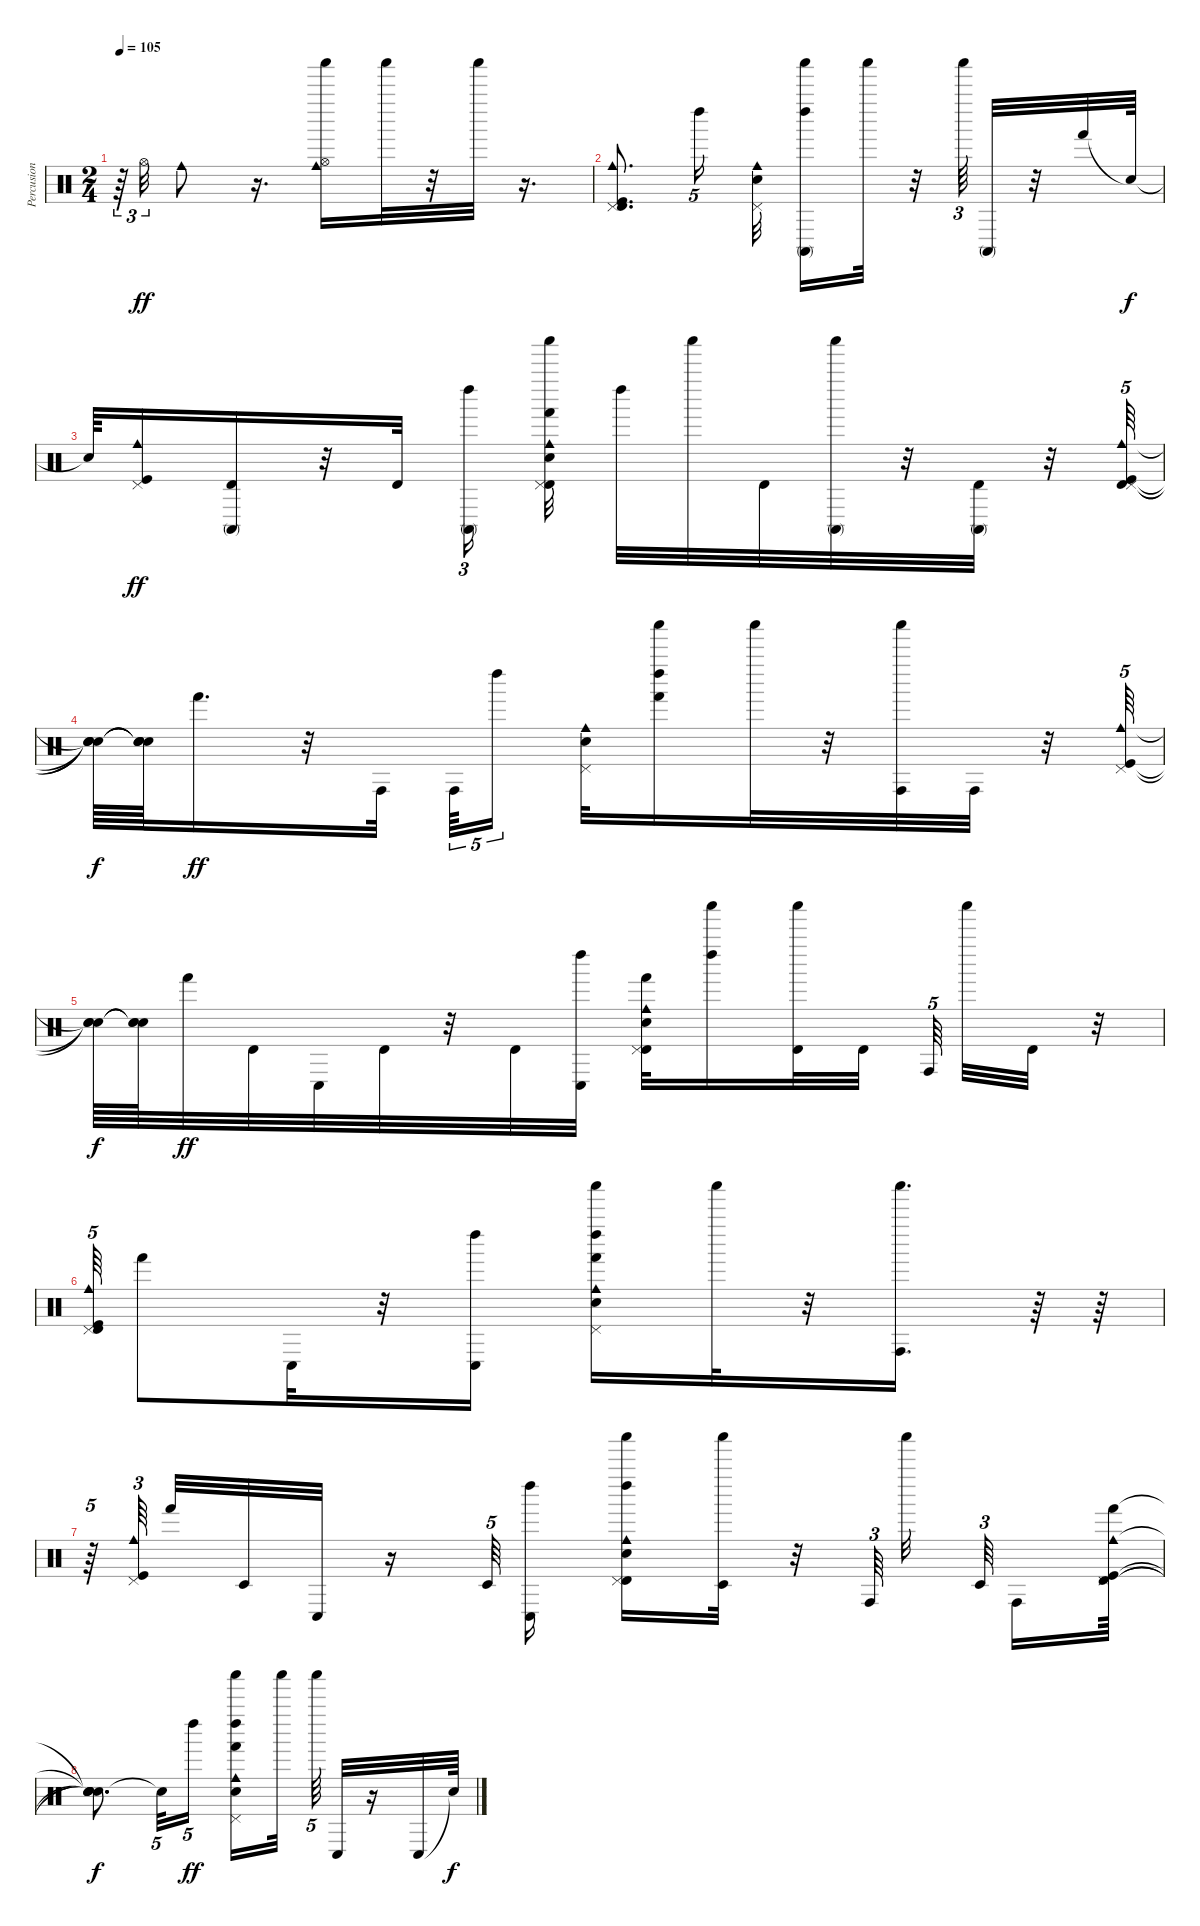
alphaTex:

\track ("Percusion" "Percusion") {instrument percussion}
\staff {score}
\articulation defaults
\ts (2 4)
\tempo 105
\clef neutral
\ks c
r.64{tu (3 2) dy ff} "Hi-Hat (open)".32{tu (3 2)} "Cowbell medium (hit)".8 r.16{d} ("Shaker (hit)" "Hi-Hat (open)" "Cowbell medium (hit)").16 "Shaker (hit)".32 r.32 "Shaker (hit)".32 r.16{d} |
("Cowbell medium (hit)" "Kick (hit)" "Pedal Hi-Hat (hit)" "Timbale high (hit)").8{d} "Left Maraca (hit)".16{tu (5 4)} ("Electric Snare (hit)" "Cowbell medium (hit)" "Pedal Hi-Hat (hit)").32 ("Shaker (hit)" "Left Maraca (hit)" "Conga high (mute)").16 "Shaker (hit)".32 r.32 "Shaker (hit)".64{tu (3 2)} "Conga high (mute)".32 r.32 "Hand (hit)".32 "Snare (hit)"{t}.64{dy f} |
"Snare (hit)"{t}.64 ("Pedal Hi-Hat (hit)" "Cowbell medium (hit)" "Kick (hit)").16{dy ff} ("Timbale high (hit)" "Conga high (mute)").16 r.32 "Timbale high (hit)".32{beam splitsecondary} ("Conga high (mute)" "Left Maraca (hit)").16{tu (3 2)} ("Shaker (hit)" "Timbale high (hit)" "Hand (hit)" "Cowbell medium (hit)" "Electric Snare (hit)" "Pedal Hi-Hat (hit)").32 "Left Maraca (hit)".32 "Shaker (hit)".32 "Timbale high (hit)".32 ("Shaker (hit)" "Conga high (mute)").32 r.32 ("Timbale high (hit)" "Conga high (mute)").32 r.32 ("Timbale high (hit)" "Kick (hit)" "Cowbell medium (hit)" "Pedal Hi-Hat (hit)").64{tu (5 4)} |
("Snare (hit)"{t} "Snare (hit)"{t} "Snare (hit)"{t} "Snare (hit)"{t}).64{dy f} ("Snare (hit)"{t} "Snare (hit)"{t} "Snare (hit)"{t} "Snare (hit)"{t}).64 "Hand (hit)".16{d dy ff} r.32 "Conga high (hit)".32{beam splitsecondary} "Conga high (hit)".64{tu (5 4)} "Left Maraca (hit)".16{tu (5 4)} ("Pedal Hi-Hat (hit)" "Electric Snare (hit)" "Cowbell medium (hit)").32 ("Left Maraca (hit)" "Shaker (hit)" "Hand (hit)").16 "Shaker (hit)".32 r.32 ("Shaker (hit)" "Conga high (hit)").32 "Conga high (hit)".32 r.32 ("Pedal Hi-Hat (hit)" "Kick (hit)" "Cowbell medium (hit)").64{tu (5 4)} |
("Snare (hit)"{t} "Snare (hit)"{t} "Snare (hit)"{t}).64{dy f} ("Snare (hit)"{t} "Snare (hit)"{t} "Snare (hit)"{t}).64 "Hand (hit)".32{dy ff} "Timbale high (hit)".32 "Conga low (hit)".32 "Timbale high (hit)".32 r.32 "Timbale high (hit)".32 ("Conga low (hit)" "Left Maraca (hit)").32 ("Timbale high (hit)" "Cowbell medium (hit)" "Electric Snare (hit)" "Hand (hit)" "Pedal Hi-Hat (hit)").32 ("Left Maraca (hit)" "Shaker (hit)").16 ("Timbale high (hit)" "Shaker (hit)").32 "Timbale high (hit)".32{beam splitsecondary} "Conga high (hit)".64{tu (5 4) beam splitsecondary} "Shaker (hit)".32 "Timbale high (hit)".32 r.32 |
("Cowbell medium (hit)" "Kick (hit)" "Pedal Hi-Hat (hit)" "Timbale high (hit)").64{tu (5 4)} "Hand (hit)".8 "Conga low (hit)".32 r.32 ("Left Maraca (hit)" "Conga low (hit)").16 ("Pedal Hi-Hat (hit)" "Electric Snare (hit)" "Cowbell medium (hit)" "Left Maraca (hit)" "Shaker (hit)" "Hand (hit)").16 "Shaker (hit)".32 r.32 ("Conga high (hit)" "Shaker (hit)").16{d} r.64 r.64 |
r.64{tu (5 4)} ("Pedal Hi-Hat (hit)" "Cowbell medium (hit)" "Kick (hit)").64{tu (3 2) beam splitsecondary} "Hand (hit)".32 "Timbale low (hit)".32 "Conga low (hit)".32 r.16 "Timbale low (hit)".64{tu (5 4)} ("Conga low (hit)" "Left Maraca (hit)").16 ("Timbale high (hit)" "Cowbell medium (hit)" "Electric Snare (hit)" "Pedal Hi-Hat (hit)" "Shaker (hit)" "Left Maraca (hit)").16 ("Shaker (hit)" "Timbale low (hit)").32 r.32 "Conga high (hit)".64{tu (3 2) beam splitsecondary} "Shaker (hit)".32{beam splitsecondary} "Timbale low (hit)".64{tu (3 2) beam splitsecondary} "Conga high (hit)".16 ("Timbale high (hit)" "Pedal Hi-Hat (hit)" "Cowbell medium (hit)" "Kick (hit)" "Hand (hit)").64 |
("Snare (hit)"{t} "Snare (hit)"{t} "Snare (hit)"{t} "Snare (hit)"{t} "Snare (hit)"{t}).8{d dy f} "Snare (hit)"{t}.32{tu (5 4)} "Left Maraca (hit)".16{tu (5 4) dy ff} ("Pedal Hi-Hat (hit)" "Cowbell medium (hit)" "Electric Snare (hit)" "Hand (hit)" "Left Maraca (hit)" "Shaker (hit)").16 "Shaker (hit)".32{beam splitsecondary} "Shaker (hit)".64{tu (5 4)} "Conga low (hit)".32 r.16 "Conga low (hit)".32 "Snare (hit)"{t}.64{dy f}
